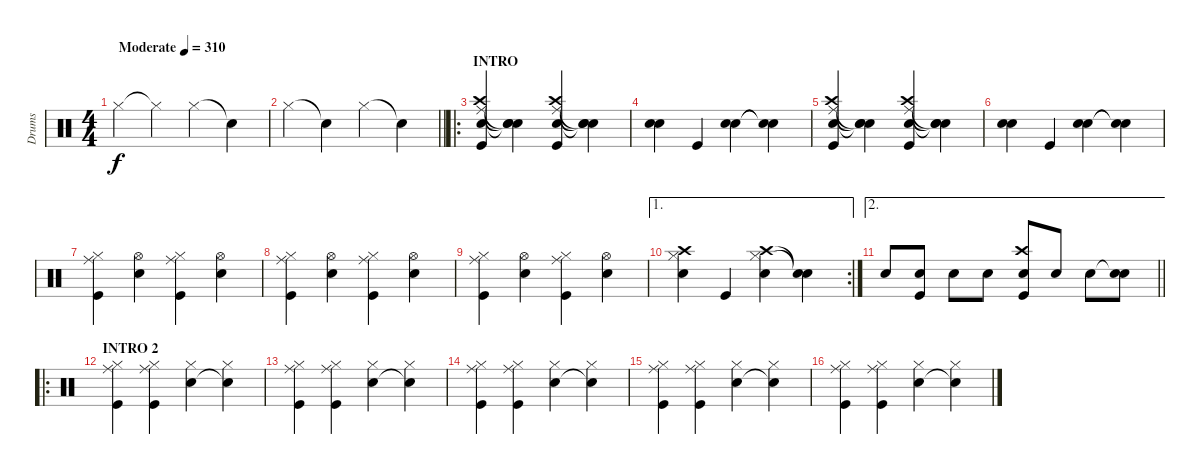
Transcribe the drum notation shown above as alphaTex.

\track ("Drums" "Drums") {instrument percussion}
\staff {score}
\articulation defaults
\ts (4 4)
\tempo (310 "Moderate")
\clef neutral
\ks c "Hi-Hat (closed)".4{dy f} "Hi-Hat (closed)"{t}.4 "Hi-Hat (closed)".4 "Snare (hit)"{t}.4
|
\barLineRight lightlight "Hi-Hat (closed)".4 "Snare (hit)"{t}.4 "Hi-Hat (closed)".4 "Snare (hit)"{t}.4
|
\ro
\section ("" "INTRO")
("Ride (middle)" "Crash high (hit)" "Snare (hit) 2" "Kick (hit)").4 ("Snare (hit)"{t} "Snare (hit)"{t} "Snare (hit)"{t}).4 ("Ride (middle)" "Crash high (hit)" "Snare (hit) 2" "Kick (hit)").4 ("Snare (hit)"{t} "Snare (hit)"{t} "Snare (hit)"{t}).4 |
("Snare (hit) 2" "Snare (hit) 2").4 "Kick (hit)".4 ("Snare (hit) 2" "Snare (hit) 2").4 ("Snare (hit)"{t} "Snare (hit)"{t}).4 |
("Ride (middle)" "Crash high (hit)" "Snare (hit) 2" "Kick (hit)").4 ("Snare (hit)"{t} "Snare (hit)"{t} "Snare (hit)"{t}).4 ("Ride (middle)" "Crash high (hit)" "Snare (hit) 2" "Kick (hit)").4 ("Snare (hit)"{t} "Snare (hit)"{t} "Snare (hit)"{t}).4 |
("Snare (hit) 2" "Snare (hit) 2").4 "Kick (hit)".4 ("Snare (hit) 2" "Snare (hit) 2").4 ("Snare (hit)"{t} "Snare (hit)"{t}).4 |
("Ride (middle)" "Hi-Hat (closed)" "Kick (hit)").4 ("Hi-Hat (open)" "Snare (hit) 2").4 ("Ride (middle)" "Hi-Hat (closed)" "Kick (hit)").4 ("Hi-Hat (open)" "Snare (hit) 2").4 |
("Ride (middle)" "Hi-Hat (closed)" "Kick (hit)").4 ("Hi-Hat (open)" "Snare (hit) 2").4 ("Ride (middle)" "Hi-Hat (closed)" "Kick (hit)").4 ("Hi-Hat (open)" "Snare (hit) 2").4 |
("Ride (middle)" "Hi-Hat (closed)" "Kick (hit)").4 ("Hi-Hat (open)" "Snare (hit) 2").4 ("Ride (middle)" "Hi-Hat (closed)" "Kick (hit)").4 ("Hi-Hat (open)" "Snare (hit) 2").4 |
\ae 1
\rc 2
("Crash high (hit)" "Hi-Hat (closed)" "Snare (hit) 2").4 "Kick (hit)".4 ("Crash high (hit)" "Hi-Hat (closed)" "Snare (hit) 2").4 ("Snare (hit)"{t} "Snare (hit)"{t}).4 |
\ae 2
\barLineRight lightlight "Snare (hit) 2".8
("Snare (hit) 2" "Kick (hit)").8 "Snare (hit) 2".8 "Snare (hit) 2".8 ("Crash high (hit)" "Snare (hit) 2" "Kick (hit)").8 "Snare (hit) 2".8 "Snare (hit) 2".8 ("Snare (hit)"{t} "Snare (hit) 2").8 |
\ro
\section ("" "INTRO 2")
("Ride (middle)" "Hi-Hat (closed)" "Kick (hit)").4 ("Ride (middle)" "Hi-Hat (closed)" "Kick (hit)").4 ("Snare (hit) 2" "Hi-Hat (closed)").4 ("Snare (hit)"{t} "Hi-Hat (closed)").4 |
("Ride (middle)" "Hi-Hat (closed)" "Kick (hit)").4 ("Ride (middle)" "Hi-Hat (closed)" "Kick (hit)").4 ("Snare (hit) 2" "Hi-Hat (closed)").4 ("Snare (hit)"{t} "Hi-Hat (closed)").4 |
("Ride (middle)" "Hi-Hat (closed)" "Kick (hit)").4 ("Ride (middle)" "Hi-Hat (closed)" "Kick (hit)").4 ("Snare (hit) 2" "Hi-Hat (closed)").4 ("Snare (hit)"{t} "Hi-Hat (closed)").4 |
("Ride (middle)" "Hi-Hat (closed)" "Kick (hit)").4 ("Ride (middle)" "Hi-Hat (closed)" "Kick (hit)").4 ("Snare (hit) 2" "Hi-Hat (closed)").4 ("Snare (hit)"{t} "Hi-Hat (closed)").4 |
("Ride (middle)" "Hi-Hat (closed)" "Kick (hit)").4 ("Ride (middle)" "Hi-Hat (closed)" "Kick (hit)").4 ("Snare (hit) 2" "Hi-Hat (closed)").4 ("Snare (hit)"{t} "Hi-Hat (closed)").4
